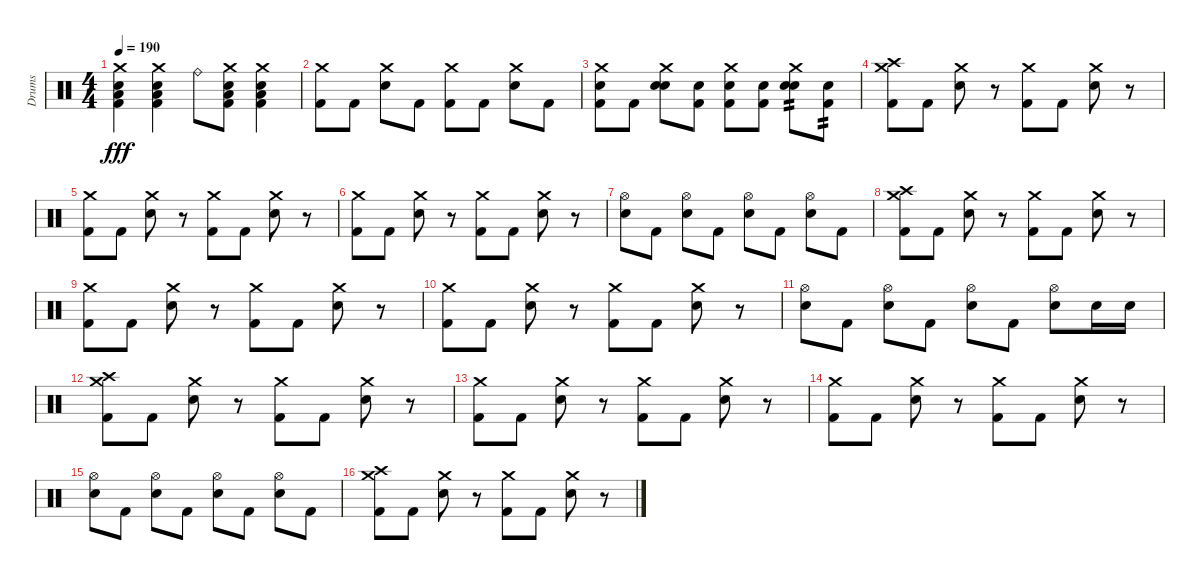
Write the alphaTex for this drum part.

\track ("Drums" "Drums") {instrument percussion}
\staff {score}
\articulation defaults
\ts (4 4)
\tempo 190
\clef neutral
\ks c
("Crash medium (hit)" "Low Floor Tom (hit)" "Snare (hit) 2" "Kick (hit) 2").4{dy fff} ("Crash medium (hit)" "Low Floor Tom (hit)" "Snare (hit) 2" "Kick (hit) 2").4 "Ride (bell)".8 ("Crash medium (hit)" "Low Floor Tom (hit)" "Snare (hit) 2" "Kick (hit) 2").8 ("Crash medium (hit)" "Low Floor Tom (hit)" "Snare (hit) 2" "Kick (hit) 2").4 |
("Crash medium (hit)" "Kick (hit) 2").8 "Kick (hit) 2".8 ("Crash medium (hit)" "Snare (hit) 2").8 "Kick (hit) 2".8 ("Crash medium (hit)" "Kick (hit) 2").8 "Kick (hit) 2".8 ("Crash medium (hit)" "Snare (hit) 2").8 "Kick (hit) 2".8 |
("Crash medium (hit)" "Electric Snare (hit)" "Kick (hit) 2").8 "Kick (hit) 2".8 ("Crash medium (hit)" "Electric Snare (hit)" "Snare (hit) 2").8 ("Electric Snare (hit)" "Kick (hit) 2").8 ("Crash medium (hit)" "Electric Snare (hit)" "Kick (hit) 2").8 ("Electric Snare (hit)" "Kick (hit) 2").8 ("Crash medium (hit)" "Electric Snare (hit)" "Snare (hit) 2").8{tp 2} ("Electric Snare (hit)" "Kick (hit) 2").8{tp 2} |
("Crash high (hit)" "Crash medium (hit)" "Kick (hit) 2").8 "Kick (hit) 2".8 ("Crash medium (hit)" "Snare (hit) 2").8 r.8 ("Crash medium (hit)" "Kick (hit) 2").8 "Kick (hit) 2".8 ("Crash medium (hit)" "Snare (hit) 2").8 r.8 |
("Crash medium (hit)" "Kick (hit) 2").8 "Kick (hit) 2".8 ("Crash medium (hit)" "Snare (hit) 2").8 r.8 ("Crash medium (hit)" "Kick (hit) 2").8 "Kick (hit) 2".8 ("Crash medium (hit)" "Snare (hit) 2").8 r.8 |
("Crash medium (hit)" "Kick (hit) 2").8 "Kick (hit) 2".8 ("Crash medium (hit)" "Snare (hit) 2").8 r.8 ("Crash medium (hit)" "Kick (hit) 2").8 "Kick (hit) 2".8 ("Crash medium (hit)" "Snare (hit) 2").8 r.8 |
("Hi-Hat (open)" "Snare (hit) 2").8 "Kick (hit) 2".8 ("Hi-Hat (open)" "Snare (hit) 2").8 "Kick (hit) 2".8 ("Hi-Hat (open)" "Snare (hit) 2").8 "Kick (hit) 2".8 ("Hi-Hat (open)" "Snare (hit) 2").8 "Kick (hit) 2".8 |
("Crash high (hit)" "Crash medium (hit)" "Kick (hit) 2").8 "Kick (hit) 2".8 ("Crash medium (hit)" "Snare (hit) 2").8 r.8 ("Crash medium (hit)" "Kick (hit) 2").8 "Kick (hit) 2".8 ("Crash medium (hit)" "Snare (hit) 2").8 r.8 |
("Crash medium (hit)" "Kick (hit) 2").8 "Kick (hit) 2".8 ("Crash medium (hit)" "Snare (hit) 2").8 r.8 ("Crash medium (hit)" "Kick (hit) 2").8 "Kick (hit) 2".8 ("Crash medium (hit)" "Snare (hit) 2").8 r.8 |
("Crash medium (hit)" "Kick (hit) 2").8 "Kick (hit) 2".8 ("Crash medium (hit)" "Snare (hit) 2").8 r.8 ("Crash medium (hit)" "Kick (hit) 2").8 "Kick (hit) 2".8 ("Crash medium (hit)" "Snare (hit) 2").8 r.8 |
("Hi-Hat (open)" "Snare (hit) 2").8 "Kick (hit) 2".8 ("Hi-Hat (open)" "Snare (hit) 2").8 "Kick (hit) 2".8 ("Hi-Hat (open)" "Snare (hit) 2").8 "Kick (hit) 2".8 ("Hi-Hat (open)" "Snare (hit) 2").8 "Snare (hit) 2".16 "Snare (hit) 2".16 |
("Crash high (hit)" "Crash medium (hit)" "Kick (hit) 2").8 "Kick (hit) 2".8 ("Crash medium (hit)" "Snare (hit) 2").8 r.8 ("Crash medium (hit)" "Kick (hit) 2").8 "Kick (hit) 2".8 ("Crash medium (hit)" "Snare (hit) 2").8 r.8 |
("Crash medium (hit)" "Kick (hit) 2").8 "Kick (hit) 2".8 ("Crash medium (hit)" "Snare (hit) 2").8 r.8 ("Crash medium (hit)" "Kick (hit) 2").8 "Kick (hit) 2".8 ("Crash medium (hit)" "Snare (hit) 2").8 r.8 |
("Crash medium (hit)" "Kick (hit) 2").8 "Kick (hit) 2".8 ("Crash medium (hit)" "Snare (hit) 2").8 r.8 ("Crash medium (hit)" "Kick (hit) 2").8 "Kick (hit) 2".8 ("Crash medium (hit)" "Snare (hit) 2").8 r.8 |
("Hi-Hat (open)" "Snare (hit) 2").8 "Kick (hit) 2".8 ("Hi-Hat (open)" "Snare (hit) 2").8 "Kick (hit) 2".8 ("Hi-Hat (open)" "Snare (hit) 2").8 "Kick (hit) 2".8 ("Hi-Hat (open)" "Snare (hit) 2").8 "Kick (hit) 2".8 |
("Crash high (hit)" "Crash medium (hit)" "Kick (hit) 2").8 "Kick (hit) 2".8 ("Crash medium (hit)" "Snare (hit) 2").8 r.8 ("Crash medium (hit)" "Kick (hit) 2").8 "Kick (hit) 2".8 ("Crash medium (hit)" "Snare (hit) 2").8 r.8
